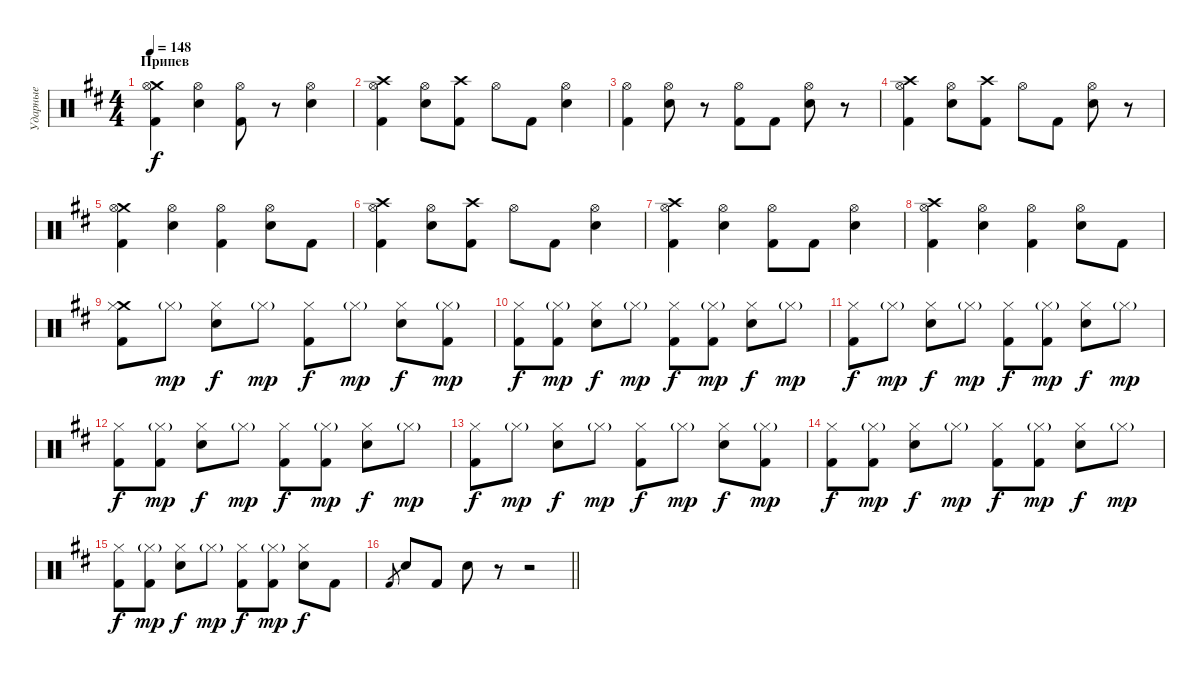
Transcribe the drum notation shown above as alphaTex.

\track ("Ударные" "Ударные") {instrument percussion}
\staff {score}
\articulation defaults
\ts (4 4)
\section ("" "Припев")
\tempo 148
\clef neutral
\ks bminor
("Crash medium (hit)" "Kick (hit) 2" "Hi-Hat (open)").4{dy f} ("Electric Snare (hit)" "Hi-Hat (open)").4 ("Kick (hit) 2" "Hi-Hat (open)").8 r.8 ("Electric Snare (hit)" "Hi-Hat (open)").4 |
("Crash high (hit)" "Kick (hit) 2" "Hi-Hat (open)").4 ("Electric Snare (hit)" "Hi-Hat (open)").8 ("Crash high (hit)" "Kick (hit) 2").8 "Hi-Hat (open)".8 "Kick (hit) 2".8 ("Electric Snare (hit)" "Hi-Hat (open)").4 |
("Kick (hit) 2" "Hi-Hat (open)").4 ("Electric Snare (hit)" "Hi-Hat (open)").8 r.8 ("Kick (hit) 2" "Hi-Hat (open)").8 "Kick (hit) 2".8 ("Electric Snare (hit)" "Hi-Hat (open)").8 r.8 |
("Crash high (hit)" "Kick (hit) 2" "Hi-Hat (open)").4 ("Electric Snare (hit)" "Hi-Hat (open)").8 ("Crash high (hit)" "Kick (hit) 2").8 "Hi-Hat (open)".8 "Kick (hit) 2".8 ("Electric Snare (hit)" "Hi-Hat (open)").8 r.8 |
("Crash medium (hit)" "Kick (hit) 2" "Hi-Hat (open)").4 ("Electric Snare (hit)" "Hi-Hat (open)").4 ("Kick (hit) 2" "Hi-Hat (open)").4 ("Electric Snare (hit)" "Hi-Hat (open)").8 "Kick (hit) 2".8 |
("Crash high (hit)" "Kick (hit) 2" "Hi-Hat (open)").4 ("Electric Snare (hit)" "Hi-Hat (open)").8 ("Crash high (hit)" "Kick (hit) 2").8 "Hi-Hat (open)".8 "Kick (hit) 2".8 ("Electric Snare (hit)" "Hi-Hat (open)").4 |
("Crash high (hit)" "Kick (hit) 2" "Hi-Hat (open)").4 ("Electric Snare (hit)" "Hi-Hat (open)").4 ("Kick (hit) 2" "Hi-Hat (open)").8 "Kick (hit) 2".8 ("Electric Snare (hit)" "Hi-Hat (open)").4 |
("Crash high (hit)" "Kick (hit) 2" "Hi-Hat (open)").4 ("Electric Snare (hit)" "Hi-Hat (open)").4 ("Kick (hit) 2" "Hi-Hat (open)").4 ("Electric Snare (hit)" "Hi-Hat (open)").8 "Kick (hit) 2".8 |
("Crash medium (hit)" "Kick (hit) 2" "Hi-Hat (closed)").8 "Hi-Hat (closed)"{g}.8{dy mp} ("Electric Snare (hit)" "Hi-Hat (closed)").8{dy f} "Hi-Hat (closed)"{g}.8{dy mp} ("Kick (hit) 2" "Hi-Hat (closed)").8{dy f} "Hi-Hat (closed)"{g}.8{dy mp} ("Electric Snare (hit)" "Hi-Hat (closed)").8{dy f} ("Kick (hit) 2" "Hi-Hat (closed)"{g}).8{dy mp} |
("Kick (hit) 2" "Hi-Hat (closed)").8{dy f} ("Kick (hit) 2" "Hi-Hat (closed)"{g}).8{dy mp} ("Electric Snare (hit)" "Hi-Hat (closed)").8{dy f} "Hi-Hat (closed)"{g}.8{dy mp} ("Kick (hit) 2" "Hi-Hat (closed)").8{dy f} ("Kick (hit) 2" "Hi-Hat (closed)"{g}).8{dy mp} ("Electric Snare (hit)" "Hi-Hat (closed)").8{dy f} "Hi-Hat (closed)"{g}.8{dy mp} |
("Kick (hit) 2" "Hi-Hat (closed)").8{dy f} "Hi-Hat (closed)"{g}.8{dy mp} ("Electric Snare (hit)" "Hi-Hat (closed)").8{dy f} "Hi-Hat (closed)"{g}.8{dy mp} ("Kick (hit) 2" "Hi-Hat (closed)").8{dy f} ("Kick (hit) 2" "Hi-Hat (closed)"{g}).8{dy mp} ("Electric Snare (hit)" "Hi-Hat (closed)").8{dy f} "Hi-Hat (closed)"{g}.8{dy mp} |
("Kick (hit) 2" "Hi-Hat (closed)").8{dy f} ("Kick (hit) 2" "Hi-Hat (closed)"{g}).8{dy mp} ("Electric Snare (hit)" "Hi-Hat (closed)").8{dy f} "Hi-Hat (closed)"{g}.8{dy mp} ("Kick (hit) 2" "Hi-Hat (closed)").8{dy f} ("Kick (hit) 2" "Hi-Hat (closed)"{g}).8{dy mp} ("Electric Snare (hit)" "Hi-Hat (closed)").8{dy f} "Hi-Hat (closed)"{g}.8{dy mp} |
("Kick (hit) 2" "Hi-Hat (closed)").8{dy f} "Hi-Hat (closed)"{g}.8{dy mp} ("Electric Snare (hit)" "Hi-Hat (closed)").8{dy f} "Hi-Hat (closed)"{g}.8{dy mp} ("Kick (hit) 2" "Hi-Hat (closed)").8{dy f} "Hi-Hat (closed)"{g}.8{dy mp} ("Electric Snare (hit)" "Hi-Hat (closed)").8{dy f} ("Kick (hit) 2" "Hi-Hat (closed)"{g}).8{dy mp} |
("Kick (hit) 2" "Hi-Hat (closed)").8{dy f} ("Kick (hit) 2" "Hi-Hat (closed)"{g}).8{dy mp} ("Electric Snare (hit)" "Hi-Hat (closed)").8{dy f} "Hi-Hat (closed)"{g}.8{dy mp} ("Kick (hit) 2" "Hi-Hat (closed)").8{dy f} ("Kick (hit) 2" "Hi-Hat (closed)"{g}).8{dy mp} ("Electric Snare (hit)" "Hi-Hat (closed)").8{dy f} "Hi-Hat (closed)"{g}.8{dy mp} |
("Kick (hit) 2" "Hi-Hat (closed)").8{dy f} ("Kick (hit) 2" "Hi-Hat (closed)"{g}).8{dy mp} ("Electric Snare (hit)" "Hi-Hat (closed)").8{dy f} "Hi-Hat (closed)"{g}.8{dy mp} ("Kick (hit) 2" "Hi-Hat (closed)").8{dy f} ("Kick (hit) 2" "Hi-Hat (closed)"{g}).8{dy mp} ("Electric Snare (hit)" "Hi-Hat (closed)").8{dy f} "Kick (hit) 2".8 |
\barLineRight lightlight "Kick (hit) 2".8{gr} "Electric Snare (hit)".8 "Kick (hit) 2".8 "Electric Snare (hit)".8
r.8 r.2
